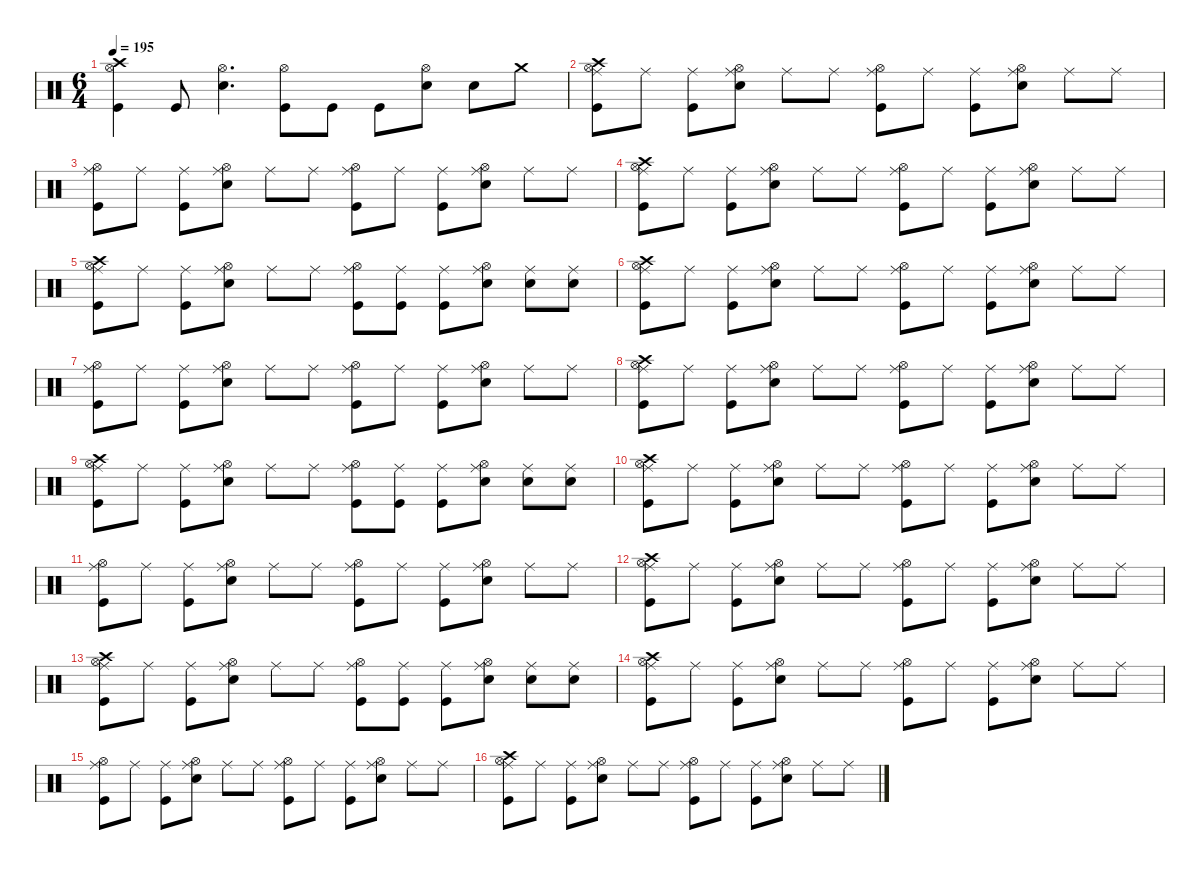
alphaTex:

\defaultSystemsLayout 4
\hideDynamics
\bracketExtendMode nobrackets
\singleTrackTrackNamePolicy hidden
\multiTrackTrackNamePolicy hidden
\firstSystemTrackNameMode fullname
\firstSystemTrackNameOrientation horizontal
\otherSystemsTrackNameOrientation horizontal
\track ("Percussion" "drm.") {defaultSystemsLayout 4 instrument percussion}
\staff {score}
\articulation defaults
\ts (6 4)
\tempo 195
\clef neutral
\ks c
("Crash high (hit)" "Hi-Hat (open)" "Kick (hit)").4{dy f beam Down} "Kick (hit)".8{beam Up} ("Hi-Hat (open)" "Snare (hit) 2").4{d beam Down} ("Hi-Hat (open)" "Kick (hit)").8{beam Down} "Kick (hit)".8{beam Down} "Kick (hit)".8{beam Down} ("Hi-Hat (open)" "Snare (hit) 2").8{beam Down} "Snare (hit) 2".8{beam Down} "Crash medium (hit)".8{beam Down} |
("Crash high (hit)" "Ride (middle)" "Hi-Hat (open)" "Kick (hit)").8{beam Down} "Ride (middle)".8{beam Down} ("Ride (middle)" "Kick (hit)").8{beam Down} ("Ride (middle)" "Snare (hit) 2" "Hi-Hat (open)").8{beam Down} "Ride (middle)".8{beam Down} "Ride (middle)".8{beam Down} ("Ride (middle)" "Hi-Hat (open)" "Kick (hit)").8{beam Down} "Ride (middle)".8{beam Down} ("Ride (middle)" "Kick (hit)").8{beam Down} ("Ride (middle)" "Snare (hit) 2" "Hi-Hat (open)").8{beam Down} "Ride (middle)".8{beam Down} "Ride (middle)".8{beam Down} |
("Ride (middle)" "Hi-Hat (open)" "Kick (hit)").8{beam Down} "Ride (middle)".8{beam Down} ("Ride (middle)" "Kick (hit)").8{beam Down} ("Ride (middle)" "Snare (hit) 2" "Hi-Hat (open)").8{beam Down} "Ride (middle)".8{beam Down} "Ride (middle)".8{beam Down} ("Ride (middle)" "Hi-Hat (open)" "Kick (hit)").8{beam Down} "Ride (middle)".8{beam Down} ("Ride (middle)" "Kick (hit)").8{beam Down} ("Ride (middle)" "Snare (hit) 2" "Hi-Hat (open)").8{beam Down} "Ride (middle)".8{beam Down} "Ride (middle)".8{beam Down} |
("Crash high (hit)" "Ride (middle)" "Hi-Hat (open)" "Kick (hit)").8{beam Down} "Ride (middle)".8{beam Down} ("Ride (middle)" "Kick (hit)").8{beam Down} ("Ride (middle)" "Snare (hit) 2" "Hi-Hat (open)").8{beam Down} "Ride (middle)".8{beam Down} "Ride (middle)".8{beam Down} ("Ride (middle)" "Hi-Hat (open)" "Kick (hit)").8{beam Down} "Ride (middle)".8{beam Down} ("Ride (middle)" "Kick (hit)").8{beam Down} ("Ride (middle)" "Snare (hit) 2" "Hi-Hat (open)").8{beam Down} "Ride (middle)".8{beam Down} "Ride (middle)".8{beam Down} |
("Crash high (hit)" "Ride (middle)" "Hi-Hat (open)" "Kick (hit)").8{beam Down} "Ride (middle)".8{beam Down} ("Ride (middle)" "Kick (hit)").8{beam Down} ("Ride (middle)" "Snare (hit) 2" "Hi-Hat (open)").8{beam Down} "Ride (middle)".8{beam Down} "Ride (middle)".8{beam Down} ("Ride (middle)" "Hi-Hat (open)" "Kick (hit)").8{beam Down} ("Ride (middle)" "Kick (hit)").8{beam Down} ("Ride (middle)" "Kick (hit)").8{beam Down} ("Ride (middle)" "Snare (hit) 2" "Hi-Hat (open)").8{beam Down} ("Ride (middle)" "Snare (hit) 2").8{beam Down} ("Ride (middle)" "Snare (hit) 2").8{beam Down} |
("Crash high (hit)" "Ride (middle)" "Hi-Hat (open)" "Kick (hit)").8{beam Down} "Ride (middle)".8{beam Down} ("Ride (middle)" "Kick (hit)").8{beam Down} ("Ride (middle)" "Snare (hit) 2" "Hi-Hat (open)").8{beam Down} "Ride (middle)".8{beam Down} "Ride (middle)".8{beam Down} ("Ride (middle)" "Hi-Hat (open)" "Kick (hit)").8{beam Down} "Ride (middle)".8{beam Down} ("Ride (middle)" "Kick (hit)").8{beam Down} ("Ride (middle)" "Snare (hit) 2" "Hi-Hat (open)").8{beam Down} "Ride (middle)".8{beam Down} "Ride (middle)".8{beam Down} |
("Ride (middle)" "Hi-Hat (open)" "Kick (hit)").8{beam Down} "Ride (middle)".8{beam Down} ("Ride (middle)" "Kick (hit)").8{beam Down} ("Ride (middle)" "Snare (hit) 2" "Hi-Hat (open)").8{beam Down} "Ride (middle)".8{beam Down} "Ride (middle)".8{beam Down} ("Ride (middle)" "Hi-Hat (open)" "Kick (hit)").8{beam Down} "Ride (middle)".8{beam Down} ("Ride (middle)" "Kick (hit)").8{beam Down} ("Ride (middle)" "Snare (hit) 2" "Hi-Hat (open)").8{beam Down} "Ride (middle)".8{beam Down} "Ride (middle)".8{beam Down} |
("Crash high (hit)" "Ride (middle)" "Hi-Hat (open)" "Kick (hit)").8{beam Down} "Ride (middle)".8{beam Down} ("Ride (middle)" "Kick (hit)").8{beam Down} ("Ride (middle)" "Snare (hit) 2" "Hi-Hat (open)").8{beam Down} "Ride (middle)".8{beam Down} "Ride (middle)".8{beam Down} ("Ride (middle)" "Hi-Hat (open)" "Kick (hit)").8{beam Down} "Ride (middle)".8{beam Down} ("Ride (middle)" "Kick (hit)").8{beam Down} ("Ride (middle)" "Snare (hit) 2" "Hi-Hat (open)").8{beam Down} "Ride (middle)".8{beam Down} "Ride (middle)".8{beam Down} |
("Crash high (hit)" "Ride (middle)" "Hi-Hat (open)" "Kick (hit)").8{beam Down} "Ride (middle)".8{beam Down} ("Ride (middle)" "Kick (hit)").8{beam Down} ("Ride (middle)" "Snare (hit) 2" "Hi-Hat (open)").8{beam Down} "Ride (middle)".8{beam Down} "Ride (middle)".8{beam Down} ("Ride (middle)" "Hi-Hat (open)" "Kick (hit)").8{beam Down} ("Ride (middle)" "Kick (hit)").8{beam Down} ("Ride (middle)" "Kick (hit)").8{beam Down} ("Ride (middle)" "Snare (hit) 2" "Hi-Hat (open)").8{beam Down} ("Ride (middle)" "Snare (hit) 2").8{beam Down} ("Ride (middle)" "Snare (hit) 2").8{beam Down} |
("Crash high (hit)" "Ride (middle)" "Hi-Hat (open)" "Kick (hit)").8{beam Down} "Ride (middle)".8{beam Down} ("Ride (middle)" "Kick (hit)").8{beam Down} ("Ride (middle)" "Snare (hit) 2" "Hi-Hat (open)").8{beam Down} "Ride (middle)".8{beam Down} "Ride (middle)".8{beam Down} ("Ride (middle)" "Hi-Hat (open)" "Kick (hit)").8{beam Down} "Ride (middle)".8{beam Down} ("Ride (middle)" "Kick (hit)").8{beam Down} ("Ride (middle)" "Snare (hit) 2" "Hi-Hat (open)").8{beam Down} "Ride (middle)".8{beam Down} "Ride (middle)".8{beam Down} |
("Ride (middle)" "Hi-Hat (open)" "Kick (hit)").8{beam Down} "Ride (middle)".8{beam Down} ("Ride (middle)" "Kick (hit)").8{beam Down} ("Ride (middle)" "Snare (hit) 2" "Hi-Hat (open)").8{beam Down} "Ride (middle)".8{beam Down} "Ride (middle)".8{beam Down} ("Ride (middle)" "Hi-Hat (open)" "Kick (hit)").8{beam Down} "Ride (middle)".8{beam Down} ("Ride (middle)" "Kick (hit)").8{beam Down} ("Ride (middle)" "Snare (hit) 2" "Hi-Hat (open)").8{beam Down} "Ride (middle)".8{beam Down} "Ride (middle)".8{beam Down} |
("Crash high (hit)" "Ride (middle)" "Hi-Hat (open)" "Kick (hit)").8{beam Down} "Ride (middle)".8{beam Down} ("Ride (middle)" "Kick (hit)").8{beam Down} ("Ride (middle)" "Snare (hit) 2" "Hi-Hat (open)").8{beam Down} "Ride (middle)".8{beam Down} "Ride (middle)".8{beam Down} ("Ride (middle)" "Hi-Hat (open)" "Kick (hit)").8{beam Down} "Ride (middle)".8{beam Down} ("Ride (middle)" "Kick (hit)").8{beam Down} ("Ride (middle)" "Snare (hit) 2" "Hi-Hat (open)").8{beam Down} "Ride (middle)".8{beam Down} "Ride (middle)".8{beam Down} |
("Crash high (hit)" "Ride (middle)" "Hi-Hat (open)" "Kick (hit)").8{beam Down} "Ride (middle)".8{beam Down} ("Ride (middle)" "Kick (hit)").8{beam Down} ("Ride (middle)" "Snare (hit) 2" "Hi-Hat (open)").8{beam Down} "Ride (middle)".8{beam Down} "Ride (middle)".8{beam Down} ("Ride (middle)" "Hi-Hat (open)" "Kick (hit)").8{beam Down} ("Ride (middle)" "Kick (hit)").8{beam Down} ("Ride (middle)" "Kick (hit)").8{beam Down} ("Ride (middle)" "Snare (hit) 2" "Hi-Hat (open)").8{beam Down} ("Ride (middle)" "Snare (hit) 2").8{beam Down} ("Ride (middle)" "Snare (hit) 2").8{beam Down} |
("Crash high (hit)" "Ride (middle)" "Hi-Hat (open)" "Kick (hit)").8{beam Down} "Ride (middle)".8{beam Down} ("Ride (middle)" "Kick (hit)").8{beam Down} ("Ride (middle)" "Snare (hit) 2" "Hi-Hat (open)").8{beam Down} "Ride (middle)".8{beam Down} "Ride (middle)".8{beam Down} ("Ride (middle)" "Hi-Hat (open)" "Kick (hit)").8{beam Down} "Ride (middle)".8{beam Down} ("Ride (middle)" "Kick (hit)").8{beam Down} ("Ride (middle)" "Snare (hit) 2" "Hi-Hat (open)").8{beam Down} "Ride (middle)".8{beam Down} "Ride (middle)".8{beam Down} |
("Ride (middle)" "Hi-Hat (open)" "Kick (hit)").8{beam Down} "Ride (middle)".8{beam Down} ("Ride (middle)" "Kick (hit)").8{beam Down} ("Ride (middle)" "Snare (hit) 2" "Hi-Hat (open)").8{beam Down} "Ride (middle)".8{beam Down} "Ride (middle)".8{beam Down} ("Ride (middle)" "Hi-Hat (open)" "Kick (hit)").8{beam Down} "Ride (middle)".8{beam Down} ("Ride (middle)" "Kick (hit)").8{beam Down} ("Ride (middle)" "Snare (hit) 2" "Hi-Hat (open)").8{beam Down} "Ride (middle)".8{beam Down} "Ride (middle)".8{beam Down} |
("Crash high (hit)" "Ride (middle)" "Hi-Hat (open)" "Kick (hit)").8{beam Down} "Ride (middle)".8{beam Down} ("Ride (middle)" "Kick (hit)").8{beam Down} ("Ride (middle)" "Snare (hit) 2" "Hi-Hat (open)").8{beam Down} "Ride (middle)".8{beam Down} "Ride (middle)".8{beam Down} ("Ride (middle)" "Hi-Hat (open)" "Kick (hit)").8{beam Down} "Ride (middle)".8{beam Down} ("Ride (middle)" "Kick (hit)").8{beam Down} ("Ride (middle)" "Snare (hit) 2" "Hi-Hat (open)").8{beam Down} "Ride (middle)".8{beam Down} "Ride (middle)".8{beam Down}
